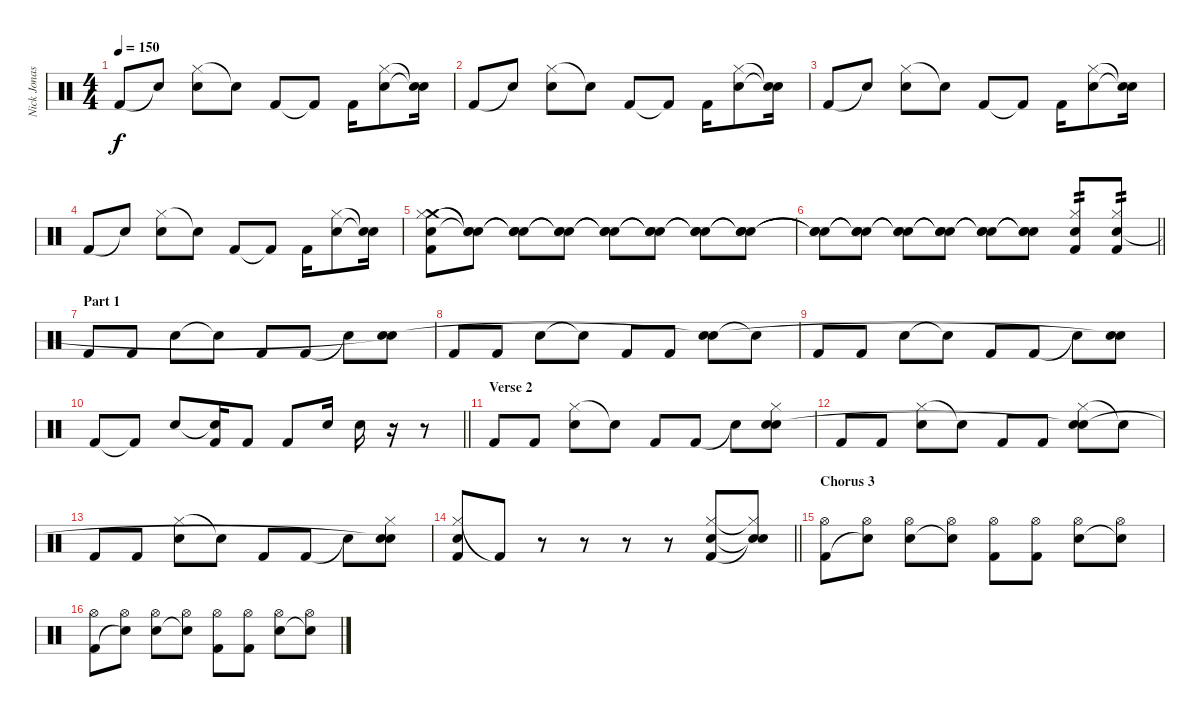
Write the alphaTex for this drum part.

\track ("Nick Jonas Drums" "Nick Jonas") {instrument percussion}
\staff {score}
\articulation defaults
\ts (4 4)
\tempo 150
\clef neutral
\ks c "Kick (hit) 2".8{dy f} "Snare (hit)"{t}.8
("Hi-Hat (closed)" "Electric Snare (hit)").8 "Snare (hit)"{t}.8 "Kick (hit) 2".8 "Kick (hit) 2"{t}.8 "Kick (hit) 2".16 ("Hi-Hat (closed)" "Electric Snare (hit)").8 ("Snare (hit)"{t} "Snare (hit)"{t}).16 |
"Kick (hit) 2".8 "Snare (hit)"{t}.8 ("Hi-Hat (closed)" "Electric Snare (hit)").8 "Snare (hit)"{t}.8 "Kick (hit) 2".8 "Kick (hit) 2"{t}.8 "Kick (hit) 2".16 ("Hi-Hat (closed)" "Electric Snare (hit)").8 ("Snare (hit)"{t} "Snare (hit)"{t}).16 |
"Kick (hit) 2".8 "Snare (hit)"{t}.8 ("Hi-Hat (closed)" "Electric Snare (hit)").8 "Snare (hit)"{t}.8 "Kick (hit) 2".8 "Kick (hit) 2"{t}.8 "Kick (hit) 2".16 ("Hi-Hat (closed)" "Electric Snare (hit)").8 ("Snare (hit)"{t} "Snare (hit)"{t}).16 |
"Kick (hit) 2".8 "Snare (hit)"{t}.8 ("Hi-Hat (closed)" "Electric Snare (hit)").8 "Snare (hit)"{t}.8 "Kick (hit) 2".8 "Kick (hit) 2"{t}.8 "Kick (hit) 2".16 ("Hi-Hat (closed)" "Electric Snare (hit)").8 ("Snare (hit)"{t} "Snare (hit)"{t}).16 |
("Crash medium (hit)" "Hi-Hat (closed)" "Electric Snare (hit)" "Kick (hit) 2").8 ("Snare (hit)"{t} "Snare (hit)"{t} "Snare (hit)"{t}).8 ("Snare (hit)"{t} "Snare (hit)"{t} "Snare (hit)"{t}).8 ("Snare (hit)"{t} "Snare (hit)"{t} "Snare (hit)"{t}).8 ("Snare (hit)"{t} "Snare (hit)"{t} "Snare (hit)"{t}).8 ("Snare (hit)"{t} "Snare (hit)"{t} "Snare (hit)"{t}).8 ("Snare (hit)"{t} "Snare (hit)"{t} "Snare (hit)"{t}).8 ("Snare (hit)"{t} "Snare (hit)"{t} "Snare (hit)"{t}).8 |
\barLineRight lightlight
("Snare (hit)"{t} "Snare (hit)"{t} "Snare (hit)"{t}).8 ("Snare (hit)"{t} "Snare (hit)"{t} "Snare (hit)"{t}).8 ("Snare (hit)"{t} "Snare (hit)"{t} "Snare (hit)"{t}).8 ("Snare (hit)"{t} "Snare (hit)"{t} "Snare (hit)"{t}).8 ("Snare (hit)"{t} "Snare (hit)"{t} "Snare (hit)"{t}).8 ("Snare (hit)"{t} "Snare (hit)"{t} "Snare (hit)"{t}).8 ("Hi-Hat (closed)" "Electric Snare (hit)" "Kick (hit) 2").8{tp 2} ("Hi-Hat (closed)" "Electric Snare (hit)" "Kick (hit) 2").8{tp 2} |
\section ("" "Part 1")
"Kick (hit) 2".8 "Kick (hit) 2".8 "Electric Snare (hit)".8 "Snare (hit)"{t}.8 "Kick (hit) 2".8 "Kick (hit) 2".8 "Snare (hit)"{t}.8 ("Electric Snare (hit)" "Snare (hit)"{t}).8 |
"Kick (hit) 2".8 "Kick (hit) 2".8 "Electric Snare (hit)".8 "Snare (hit)"{t}.8 "Kick (hit) 2".8 "Kick (hit) 2".8 ("Electric Snare (hit)" "Snare (hit)"{t}).8 "Snare (hit)"{t}.8 |
"Kick (hit) 2".8 "Kick (hit) 2".8 "Electric Snare (hit)".8 "Snare (hit)"{t}.8 "Kick (hit) 2".8 "Kick (hit) 2".8 "Snare (hit)"{t}.8 ("Electric Snare (hit)" "Snare (hit)"{t}).8 |
\barLineRight lightlight "Kick (hit) 2".8 "Kick (hit) 2"{t}.8 "Electric Snare (hit)".8
("Snare (hit)"{t} "Kick (hit) 2").16 "Kick (hit) 2".8 "Kick (hit) 2".8 "Electric Snare (hit)".16 "Electric Snare (hit)".16 r.16 r.8 |
\section ("" "Verse 2")
"Kick (hit) 2".8 "Kick (hit) 2".8 ("Hi-Hat (closed)" "Electric Snare (hit)").8 "Snare (hit)"{t}.8 "Kick (hit) 2".8 "Kick (hit) 2".8 "Snare (hit)"{t}.8 ("Hi-Hat (closed)" "Electric Snare (hit)" "Snare (hit)").8 |
"Kick (hit) 2".8 "Kick (hit) 2".8 ("Hi-Hat (closed)" "Electric Snare (hit)").8 "Snare (hit)"{t}.8 "Kick (hit) 2".8 "Kick (hit) 2".8 ("Hi-Hat (closed)" "Electric Snare (hit)" "Snare (hit)"{t}).8 "Snare (hit)"{t}.8 |
"Kick (hit) 2".8 "Kick (hit) 2".8 ("Hi-Hat (closed)" "Electric Snare (hit)").8 "Snare (hit)"{t}.8 "Kick (hit) 2".8 "Kick (hit) 2".8 "Snare (hit)"{t}.8 ("Hi-Hat (closed)" "Electric Snare (hit)" "Snare (hit)"{t}).8 |
\barLineRight lightlight
("Hi-Hat (closed)" "Electric Snare (hit)" "Kick (hit) 2").8 "Kick (hit) 2"{t}.8 r.8 r.8 r.8 r.8 ("Hi-Hat (closed)" "Electric Snare (hit)" "Kick (hit) 2").8 ("Hi-Hat (closed)"{t} "Electric Snare (hit)"{t} "Snare (hit)"{t}).8 |
\section ("" "Chorus 3")
("Hi-Hat (open)" "Kick (hit) 2").8 ("Hi-Hat (open)" "Snare (hit)"{t}).8 ("Hi-Hat (open)" "Electric Snare (hit)").8 ("Hi-Hat (open)" "Snare (hit)"{t}).8 ("Hi-Hat (open)" "Kick (hit) 2").8 ("Hi-Hat (open)" "Kick (hit) 2").8 ("Hi-Hat (open)" "Electric Snare (hit)").8 ("Hi-Hat (open)" "Snare (hit)"{t}).8 |
("Hi-Hat (open)" "Kick (hit) 2").8 ("Hi-Hat (open)" "Snare (hit)"{t}).8 ("Hi-Hat (open)" "Electric Snare (hit)").8 ("Hi-Hat (open)" "Snare (hit)"{t}).8 ("Hi-Hat (open)" "Kick (hit) 2").8 ("Hi-Hat (open)" "Kick (hit) 2").8 ("Hi-Hat (open)" "Electric Snare (hit)").8 ("Hi-Hat (open)" "Snare (hit)"{t}).8
